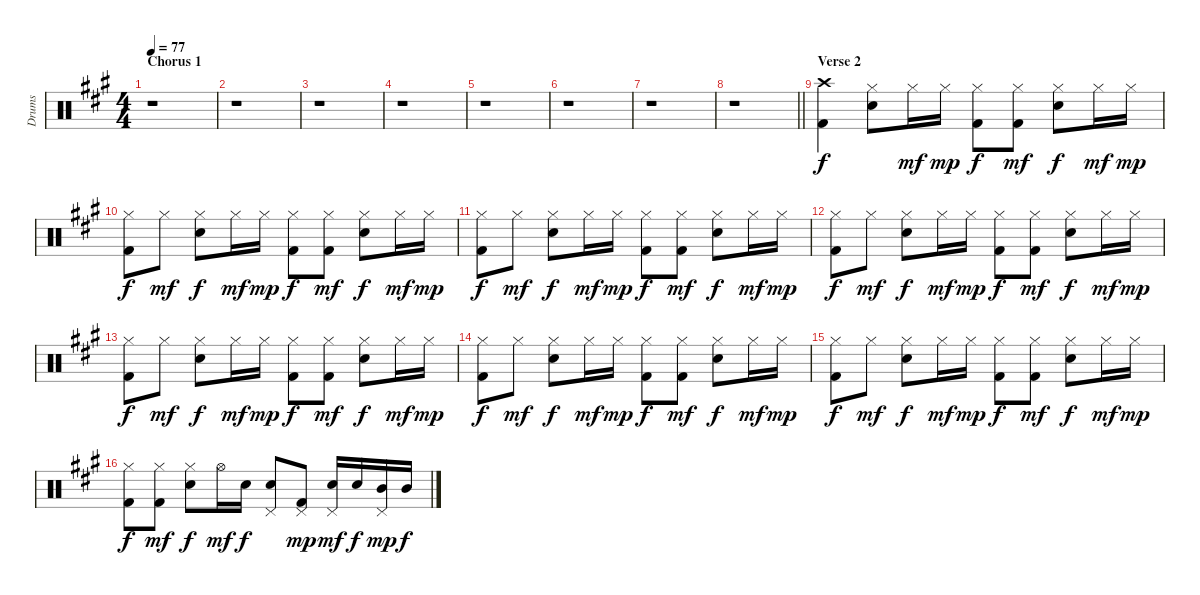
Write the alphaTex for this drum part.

\track ("Drums" "Drums") {instrument percussion}
\staff {score}
\articulation defaults
\ts (4 4)
\section ("" "Chorus 1")
\tempo 77
\clef neutral
\ks a
r.1{dy f} |
r.1 |
r.1 |
r.1 |
r.1 |
r.1 |
r.1 |
\barLineRight lightlight
r.1 |
\section ("" "Verse 2")
("Crash high (hit)" "Kick (hit) 2").4 ("Hi-Hat (closed)" "Electric Snare (hit)").8 "Hi-Hat (closed)".16{dy mf} "Hi-Hat (closed)".16{dy mp} ("Hi-Hat (closed)" "Kick (hit) 2").8{dy f} ("Hi-Hat (closed)" "Kick (hit) 2").8{dy mf} ("Hi-Hat (closed)" "Electric Snare (hit)").8{dy f} "Hi-Hat (closed)".16{dy mf} "Hi-Hat (closed)".16{dy mp} |
("Hi-Hat (closed)" "Kick (hit) 2").8{dy f} "Hi-Hat (closed)".8{dy mf} ("Hi-Hat (closed)" "Electric Snare (hit)").8{dy f} "Hi-Hat (closed)".16{dy mf} "Hi-Hat (closed)".16{dy mp} ("Hi-Hat (closed)" "Kick (hit) 2").8{dy f} ("Hi-Hat (closed)" "Kick (hit) 2").8{dy mf} ("Hi-Hat (closed)" "Electric Snare (hit)").8{dy f} "Hi-Hat (closed)".16{dy mf} "Hi-Hat (closed)".16{dy mp} |
("Hi-Hat (closed)" "Kick (hit) 2").8{dy f} "Hi-Hat (closed)".8{dy mf} ("Hi-Hat (closed)" "Electric Snare (hit)").8{dy f} "Hi-Hat (closed)".16{dy mf} "Hi-Hat (closed)".16{dy mp} ("Hi-Hat (closed)" "Kick (hit) 2").8{dy f} ("Hi-Hat (closed)" "Kick (hit) 2").8{dy mf} ("Hi-Hat (closed)" "Electric Snare (hit)").8{dy f} "Hi-Hat (closed)".16{dy mf} "Hi-Hat (closed)".16{dy mp} |
("Hi-Hat (closed)" "Kick (hit) 2").8{dy f} "Hi-Hat (closed)".8{dy mf} ("Hi-Hat (closed)" "Electric Snare (hit)").8{dy f} "Hi-Hat (closed)".16{dy mf} "Hi-Hat (closed)".16{dy mp} ("Hi-Hat (closed)" "Kick (hit) 2").8{dy f} ("Hi-Hat (closed)" "Kick (hit) 2").8{dy mf} ("Hi-Hat (closed)" "Electric Snare (hit)").8{dy f} "Hi-Hat (closed)".16{dy mf} "Hi-Hat (closed)".16{dy mp} |
("Hi-Hat (closed)" "Kick (hit) 2").8{dy f} "Hi-Hat (closed)".8{dy mf} ("Hi-Hat (closed)" "Electric Snare (hit)").8{dy f} "Hi-Hat (closed)".16{dy mf} "Hi-Hat (closed)".16{dy mp} ("Hi-Hat (closed)" "Kick (hit) 2").8{dy f} ("Hi-Hat (closed)" "Kick (hit) 2").8{dy mf} ("Hi-Hat (closed)" "Electric Snare (hit)").8{dy f} "Hi-Hat (closed)".16{dy mf} "Hi-Hat (closed)".16{dy mp} |
("Hi-Hat (closed)" "Kick (hit) 2").8{dy f} "Hi-Hat (closed)".8{dy mf} ("Hi-Hat (closed)" "Electric Snare (hit)").8{dy f} "Hi-Hat (closed)".16{dy mf} "Hi-Hat (closed)".16{dy mp} ("Hi-Hat (closed)" "Kick (hit) 2").8{dy f} ("Hi-Hat (closed)" "Kick (hit) 2").8{dy mf} ("Hi-Hat (closed)" "Electric Snare (hit)").8{dy f} "Hi-Hat (closed)".16{dy mf} "Hi-Hat (closed)".16{dy mp} |
("Hi-Hat (closed)" "Kick (hit) 2").8{dy f} "Hi-Hat (closed)".8{dy mf} ("Hi-Hat (closed)" "Electric Snare (hit)").8{dy f} "Hi-Hat (closed)".16{dy mf} "Hi-Hat (closed)".16{dy mp} ("Hi-Hat (closed)" "Kick (hit) 2").8{dy f} ("Hi-Hat (closed)" "Kick (hit) 2").8{dy mf} ("Hi-Hat (closed)" "Electric Snare (hit)").8{dy f} "Hi-Hat (closed)".16{dy mf} "Hi-Hat (closed)".16{dy mp} |
("Hi-Hat (closed)" "Kick (hit) 2").8{dy f} ("Hi-Hat (closed)" "Kick (hit) 2").8{dy mf} ("Hi-Hat (closed)" "Electric Snare (hit)").8{dy f} "Hi-Hat (open)".16{dy mf} "Electric Snare (hit)".16{dy f} ("Pedal Hi-Hat (hit)" "Electric Snare (hit)").8 ("Pedal Hi-Hat (hit)" "Kick (hit) 2").8{dy mp} ("Pedal Hi-Hat (hit)" "Electric Snare (hit)").16{dy mf} "Electric Snare (hit)".16{dy f} ("Pedal Hi-Hat (hit)" "Mid Tom (hit)").16{dy mp} "Mid Tom (hit)".16{dy f}
